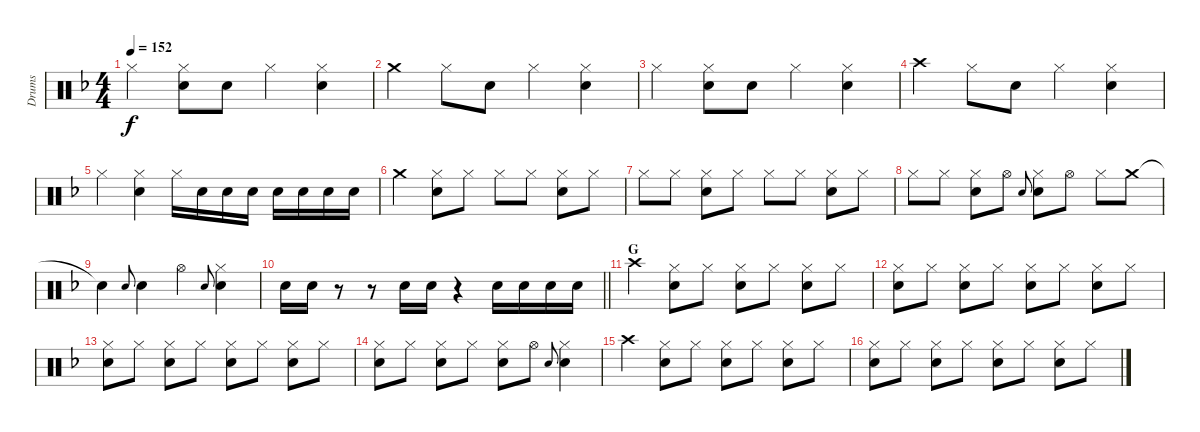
\track ("Drums" "Drums") {instrument percussion}
\staff {score}
\articulation defaults
\ts (4 4)
\tempo 152
\clef neutral
\ks f "Hi-Hat (closed)".4{dy f}
("Hi-Hat (closed)" "Snare (hit) 2").8 "Snare (hit) 2".8 "Hi-Hat (closed)".4 ("Hi-Hat (closed)" "Snare (hit) 2").4 |
"Crash medium (hit)".4 "Hi-Hat (closed)".8 "Snare (hit) 2".8 "Hi-Hat (closed)".4 ("Hi-Hat (closed)" "Snare (hit) 2").4 |
"Hi-Hat (closed)".4 ("Hi-Hat (closed)" "Snare (hit) 2").8 "Snare (hit) 2".8 "Hi-Hat (closed)".4 ("Hi-Hat (closed)" "Snare (hit) 2").4 |
"Crash high (hit)".4 "Hi-Hat (closed)".8 "Snare (hit) 2".8 "Hi-Hat (closed)".4 ("Hi-Hat (closed)" "Snare (hit) 2").4 |
"Hi-Hat (closed)".4 ("Hi-Hat (closed)" "Snare (hit) 2").4 "Hi-Hat (closed)".16 "Snare (hit) 2".16 "Snare (hit) 2".16 "Snare (hit) 2".16 "Snare (hit) 2".16 "Snare (hit) 2".16 "Snare (hit) 2".16 "Snare (hit) 2".16 |
"Crash medium (hit)".4 ("Hi-Hat (closed)" "Snare (hit) 2").8 "Hi-Hat (closed)".8 "Hi-Hat (closed)".8 "Hi-Hat (closed)".8 ("Hi-Hat (closed)" "Snare (hit) 2").8 "Hi-Hat (closed)".8 |
"Hi-Hat (closed)".8 "Hi-Hat (closed)".8 ("Hi-Hat (closed)" "Snare (hit) 2").8 "Hi-Hat (closed)".8 "Hi-Hat (closed)".8 "Hi-Hat (closed)".8 ("Hi-Hat (closed)" "Snare (hit) 2").8 "Hi-Hat (closed)".8 |
"Hi-Hat (closed)".8 "Hi-Hat (closed)".8 ("Hi-Hat (closed)" "Snare (hit) 2").8 "Hi-Hat (open)".8 "Snare (hit) 2".8{gr onbeat} ("Hi-Hat (closed)" "Snare (hit) 2").8 "Hi-Hat (open)".8 "Hi-Hat (closed)".8 "Crash medium (hit)".8 |
"Snare (hit)"{t}.4 "Snare (hit) 2".8{gr onbeat} "Snare (hit) 2".4 "Hi-Hat (open)".4 "Snare (hit) 2".8{gr onbeat} ("Hi-Hat (closed)" "Snare (hit) 2").4 |
\barLineRight lightlight "Snare (hit) 2".16 "Snare (hit) 2".16
r.8 r.8 "Snare (hit) 2".16 "Snare (hit) 2".16 r.4 "Snare (hit) 2".16 "Snare (hit) 2".16 "Snare (hit) 2".16 "Snare (hit) 2".16 |
\section ("" "G")
"Crash high (hit)".4 ("Hi-Hat (closed)" "Snare (hit) 2").8 "Hi-Hat (closed)".8 ("Hi-Hat (closed)" "Snare (hit) 2").8 "Hi-Hat (closed)".8 ("Hi-Hat (closed)" "Snare (hit) 2").8 "Hi-Hat (closed)".8 |
("Hi-Hat (closed)" "Snare (hit) 2").8 "Hi-Hat (closed)".8 ("Hi-Hat (closed)" "Snare (hit) 2").8 "Hi-Hat (closed)".8 ("Hi-Hat (closed)" "Snare (hit) 2").8 "Hi-Hat (closed)".8 ("Hi-Hat (closed)" "Snare (hit) 2").8 "Hi-Hat (closed)".8 |
("Hi-Hat (closed)" "Snare (hit) 2").8 "Hi-Hat (closed)".8 ("Hi-Hat (closed)" "Snare (hit) 2").8 "Hi-Hat (closed)".8 ("Hi-Hat (closed)" "Snare (hit) 2").8 "Hi-Hat (closed)".8 ("Hi-Hat (closed)" "Snare (hit) 2").8 "Hi-Hat (closed)".8 |
("Hi-Hat (closed)" "Snare (hit) 2").8 "Hi-Hat (closed)".8 ("Hi-Hat (closed)" "Snare (hit) 2").8 "Hi-Hat (closed)".8 ("Hi-Hat (closed)" "Snare (hit) 2").8 "Hi-Hat (open)".8 "Snare (hit) 2".8{gr onbeat} ("Hi-Hat (closed)" "Snare (hit) 2").4 |
"Crash high (hit)".4 ("Hi-Hat (closed)" "Snare (hit) 2").8 "Hi-Hat (closed)".8 ("Hi-Hat (closed)" "Snare (hit) 2").8 "Hi-Hat (closed)".8 ("Hi-Hat (closed)" "Snare (hit) 2").8 "Hi-Hat (closed)".8 |
("Hi-Hat (closed)" "Snare (hit) 2").8 "Hi-Hat (closed)".8 ("Hi-Hat (closed)" "Snare (hit) 2").8 "Hi-Hat (closed)".8 ("Hi-Hat (closed)" "Snare (hit) 2").8 "Hi-Hat (closed)".8 ("Hi-Hat (closed)" "Snare (hit) 2").8 "Hi-Hat (closed)".8
